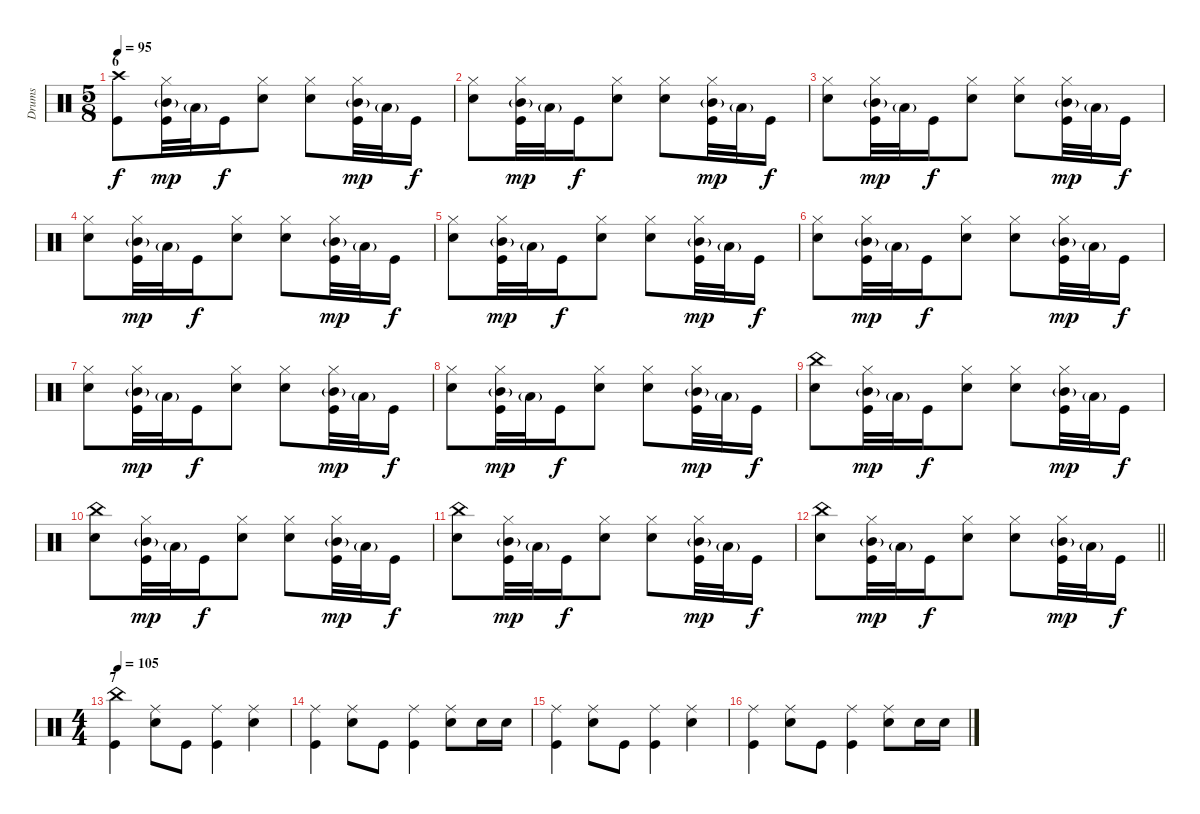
\track ("Drums" "Drums") {instrument percussion}
\staff
\articulation defaults
\ts (5 8)
\section ("" "6")
\tempo 95
\clef neutral
\ks c
("Crash high (hit)" "Kick (hit)").8{dy f} ("Hi-Hat (closed)" "Mid Tom (hit)"{g} "Kick (hit)").32{dy mp} "Low Tom (hit)"{g}.32 "Kick (hit)".16{dy f} ("Hi-Hat (closed)" "Electric Snare (hit)").8 ("Hi-Hat (closed)" "Electric Snare (hit)").8 ("Hi-Hat (closed)" "Mid Tom (hit)"{g} "Kick (hit)").32{dy mp} "Low Tom (hit)"{g}.32 "Kick (hit)".16{dy f} |
("Hi-Hat (closed)" "Electric Snare (hit)").8 ("Hi-Hat (closed)" "Mid Tom (hit)"{g} "Kick (hit)").32{dy mp} "Low Tom (hit)"{g}.32 "Kick (hit)".16{dy f} ("Hi-Hat (closed)" "Electric Snare (hit)").8 ("Hi-Hat (closed)" "Electric Snare (hit)").8 ("Hi-Hat (closed)" "Mid Tom (hit)"{g} "Kick (hit)").32{dy mp} "Low Tom (hit)"{g}.32 "Kick (hit)".16{dy f} |
("Hi-Hat (closed)" "Electric Snare (hit)").8 ("Hi-Hat (closed)" "Mid Tom (hit)"{g} "Kick (hit)").32{dy mp} "Low Tom (hit)"{g}.32 "Kick (hit)".16{dy f} ("Hi-Hat (closed)" "Electric Snare (hit)").8 ("Hi-Hat (closed)" "Electric Snare (hit)").8 ("Hi-Hat (closed)" "Mid Tom (hit)"{g} "Kick (hit)").32{dy mp} "Low Tom (hit)"{g}.32 "Kick (hit)".16{dy f} |
("Hi-Hat (closed)" "Electric Snare (hit)").8 ("Hi-Hat (closed)" "Mid Tom (hit)"{g} "Kick (hit)").32{dy mp} "Low Tom (hit)"{g}.32 "Kick (hit)".16{dy f} ("Hi-Hat (closed)" "Electric Snare (hit)").8 ("Hi-Hat (closed)" "Electric Snare (hit)").8 ("Hi-Hat (closed)" "Mid Tom (hit)"{g} "Kick (hit)").32{dy mp} "Low Tom (hit)"{g}.32 "Kick (hit)".16{dy f} |
("Hi-Hat (closed)" "Electric Snare (hit)").8 ("Hi-Hat (closed)" "Mid Tom (hit)"{g} "Kick (hit)").32{dy mp} "Low Tom (hit)"{g}.32 "Kick (hit)".16{dy f} ("Hi-Hat (closed)" "Electric Snare (hit)").8 ("Hi-Hat (closed)" "Electric Snare (hit)").8 ("Hi-Hat (closed)" "Mid Tom (hit)"{g} "Kick (hit)").32{dy mp} "Low Tom (hit)"{g}.32 "Kick (hit)".16{dy f} |
("Hi-Hat (closed)" "Electric Snare (hit)").8 ("Hi-Hat (closed)" "Mid Tom (hit)"{g} "Kick (hit)").32{dy mp} "Low Tom (hit)"{g}.32 "Kick (hit)".16{dy f} ("Hi-Hat (closed)" "Electric Snare (hit)").8 ("Hi-Hat (closed)" "Electric Snare (hit)").8 ("Hi-Hat (closed)" "Mid Tom (hit)"{g} "Kick (hit)").32{dy mp} "Low Tom (hit)"{g}.32 "Kick (hit)".16{dy f} |
("Hi-Hat (closed)" "Electric Snare (hit)").8 ("Hi-Hat (closed)" "Mid Tom (hit)"{g} "Kick (hit)").32{dy mp} "Low Tom (hit)"{g}.32 "Kick (hit)".16{dy f} ("Hi-Hat (closed)" "Electric Snare (hit)").8 ("Hi-Hat (closed)" "Electric Snare (hit)").8 ("Hi-Hat (closed)" "Mid Tom (hit)"{g} "Kick (hit)").32{dy mp} "Low Tom (hit)"{g}.32 "Kick (hit)".16{dy f} |
("Hi-Hat (closed)" "Electric Snare (hit)").8 ("Hi-Hat (closed)" "Mid Tom (hit)"{g} "Kick (hit)").32{dy mp} "Low Tom (hit)"{g}.32 "Kick (hit)".16{dy f} ("Hi-Hat (closed)" "Electric Snare (hit)").8 ("Hi-Hat (closed)" "Electric Snare (hit)").8 ("Hi-Hat (closed)" "Mid Tom (hit)"{g} "Kick (hit)").32{dy mp} "Low Tom (hit)"{g}.32 "Kick (hit)".16{dy f} |
("China (hit)" "Electric Snare (hit)").8 ("Hi-Hat (closed)" "Mid Tom (hit)"{g} "Kick (hit)").32{dy mp} "Low Tom (hit)"{g}.32 "Kick (hit)".16{dy f} ("Hi-Hat (closed)" "Electric Snare (hit)").8 ("Hi-Hat (closed)" "Electric Snare (hit)").8 ("Hi-Hat (closed)" "Mid Tom (hit)"{g} "Kick (hit)").32{dy mp} "Low Tom (hit)"{g}.32 "Kick (hit)".16{dy f} |
("China (hit)" "Electric Snare (hit)").8 ("Hi-Hat (closed)" "Mid Tom (hit)"{g} "Kick (hit)").32{dy mp} "Low Tom (hit)"{g}.32 "Kick (hit)".16{dy f} ("Hi-Hat (closed)" "Electric Snare (hit)").8 ("Hi-Hat (closed)" "Electric Snare (hit)").8 ("Hi-Hat (closed)" "Mid Tom (hit)"{g} "Kick (hit)").32{dy mp} "Low Tom (hit)"{g}.32 "Kick (hit)".16{dy f} |
("China (hit)" "Electric Snare (hit)").8 ("Hi-Hat (closed)" "Mid Tom (hit)"{g} "Kick (hit)").32{dy mp} "Low Tom (hit)"{g}.32 "Kick (hit)".16{dy f} ("Hi-Hat (closed)" "Electric Snare (hit)").8 ("Hi-Hat (closed)" "Electric Snare (hit)").8 ("Hi-Hat (closed)" "Mid Tom (hit)"{g} "Kick (hit)").32{dy mp} "Low Tom (hit)"{g}.32 "Kick (hit)".16{dy f} |
\barLineRight lightlight
("China (hit)" "Electric Snare (hit)").8 ("Hi-Hat (closed)" "Mid Tom (hit)"{g} "Kick (hit)").32{dy mp} "Low Tom (hit)"{g}.32 "Kick (hit)".16{dy f} ("Hi-Hat (closed)" "Electric Snare (hit)").8 ("Hi-Hat (closed)" "Electric Snare (hit)").8 ("Hi-Hat (closed)" "Mid Tom (hit)"{g} "Kick (hit)").32{dy mp} "Low Tom (hit)"{g}.32 "Kick (hit)".16{dy f} |
\ts (4 4)
\section ("" "7")
\tempo 105
("China (hit)" "Kick (hit)").4 ("Ride (middle)" "Electric Snare (hit)").8 "Kick (hit)".8 ("Ride (middle)" "Kick (hit)").4 ("Ride (middle)" "Electric Snare (hit)").4 |
("Ride (middle)" "Kick (hit)").4 ("Ride (middle)" "Electric Snare (hit)").8 "Kick (hit)".8 ("Ride (middle)" "Kick (hit)").4 ("Ride (middle)" "Electric Snare (hit)").8 "Electric Snare (hit)".16 "Electric Snare (hit)".16 |
("Ride (middle)" "Kick (hit)").4 ("Ride (middle)" "Electric Snare (hit)").8 "Kick (hit)".8 ("Ride (middle)" "Kick (hit)").4 ("Ride (middle)" "Electric Snare (hit)").4 |
("Ride (middle)" "Kick (hit)").4 ("Ride (middle)" "Electric Snare (hit)").8 "Kick (hit)".8 ("Ride (middle)" "Kick (hit)").4 ("Ride (middle)" "Electric Snare (hit)").8 "Electric Snare (hit)".16 "Electric Snare (hit)".16
